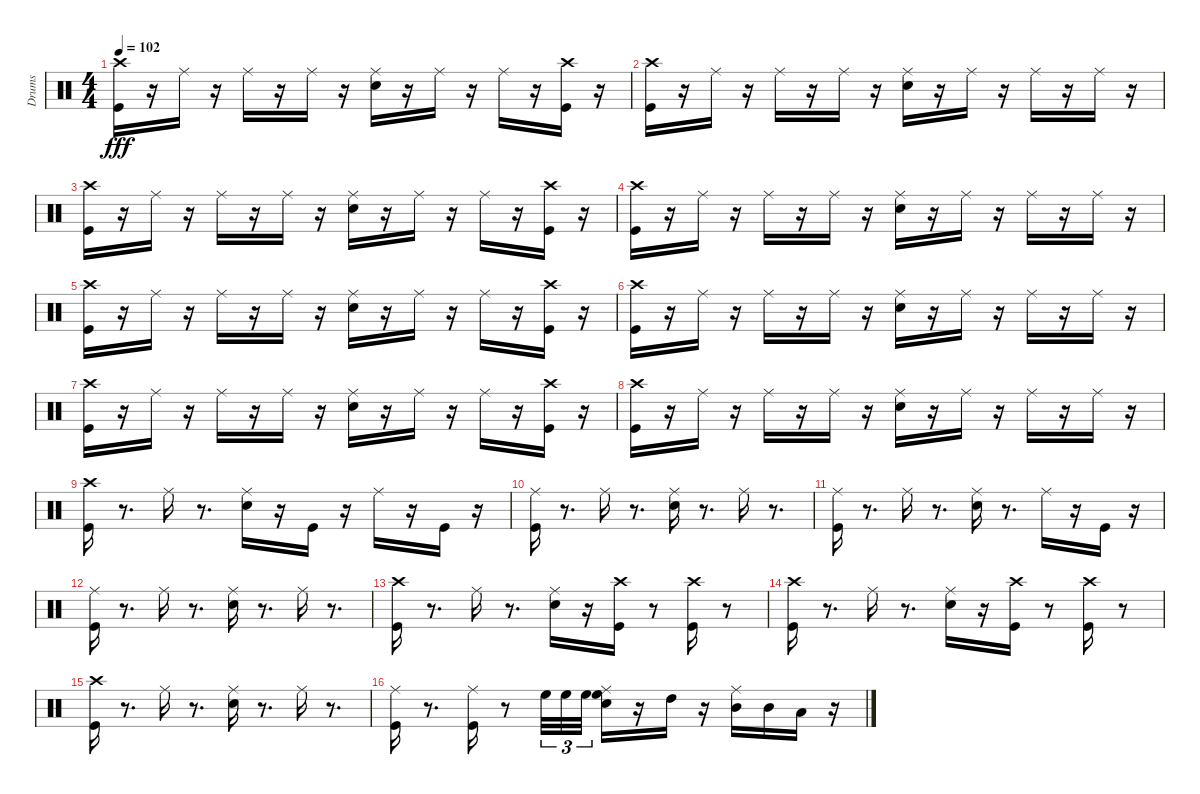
\track ("Drums" "Drums") {instrument percussion}
\staff {score}
\articulation defaults
\ts (4 4)
\tempo 102
\clef neutral
\ks c
("Crash high (hit)" "Kick (hit)").16{dy fff} r.16 "Ride (middle)".16 r.16 "Ride (middle)".16 r.16 "Ride (middle)".16 r.16 ("Ride (middle)" "Snare (hit) 2").16 r.16 "Ride (middle)".16 r.16 "Ride (middle)".16 r.16 ("Kick (hit)" "Crash high (hit)").16 r.16 |
("Kick (hit)" "Crash high (hit)").16 r.16 "Ride (middle)".16 r.16 "Ride (middle)".16 r.16 "Ride (middle)".16 r.16 ("Snare (hit) 2" "Ride (middle)").16 r.16 "Ride (middle)".16 r.16 "Ride (middle)".16 r.16 "Ride (middle)".16 r.16 |
("Kick (hit)" "Crash high (hit)").16 r.16 "Ride (middle)".16 r.16 "Ride (middle)".16 r.16 "Ride (middle)".16 r.16 ("Snare (hit) 2" "Ride (middle)").16 r.16 "Ride (middle)".16 r.16 "Ride (middle)".16 r.16 ("Kick (hit)" "Crash high (hit)").16 r.16 |
("Kick (hit)" "Crash high (hit)").16 r.16 "Ride (middle)".16 r.16 "Ride (middle)".16 r.16 "Ride (middle)".16 r.16 ("Ride (middle)" "Snare (hit) 2").16 r.16 "Ride (middle)".16 r.16 "Ride (middle)".16 r.16 "Ride (middle)".16 r.16 |
("Kick (hit)" "Crash high (hit)").16 r.16 "Ride (middle)".16 r.16 "Ride (middle)".16 r.16 "Ride (middle)".16 r.16 ("Snare (hit) 2" "Ride (middle)").16 r.16 "Ride (middle)".16 r.16 "Ride (middle)".16 r.16 ("Crash high (hit)" "Kick (hit)").16 r.16 |
("Crash high (hit)" "Kick (hit)").16 r.16 "Ride (middle)".16 r.16 "Ride (middle)".16 r.16 "Ride (middle)".16 r.16 ("Ride (middle)" "Snare (hit) 2").16 r.16 "Ride (middle)".16 r.16 "Ride (middle)".16 r.16 "Ride (middle)".16 r.16 |
("Crash high (hit)" "Kick (hit)").16 r.16 "Ride (middle)".16 r.16 "Ride (middle)".16 r.16 "Ride (middle)".16 r.16 ("Ride (middle)" "Snare (hit) 2").16 r.16 "Ride (middle)".16 r.16 "Ride (middle)".16 r.16 ("Crash high (hit)" "Kick (hit)").16 r.16 |
("Crash high (hit)" "Kick (hit)").16 r.16 "Ride (middle)".16 r.16 "Ride (middle)".16 r.16 "Ride (middle)".16 r.16 ("Snare (hit) 2" "Ride (middle)").16 r.16 "Ride (middle)".16 r.16 "Ride (middle)".16 r.16 "Ride (middle)".16 r.16 |
("Crash high (hit)" "Kick (hit)").16 r.8{d} "Ride (middle)".16 r.8{d} ("Snare (hit) 2" "Ride (middle)").16 r.16 "Kick (hit)".16 r.16 "Ride (middle)".16 r.16 "Kick (hit)".16 r.16 |
("Ride (middle)" "Kick (hit)").16 r.8{d} "Ride (middle)".16 r.8{d} ("Ride (middle)" "Snare (hit) 2").16 r.8{d} "Ride (middle)".16 r.8{d} |
("Ride (middle)" "Kick (hit)").16 r.8{d} "Ride (middle)".16 r.8{d} ("Ride (middle)" "Snare (hit) 2").16 r.8{d} "Ride (middle)".16 r.16 "Kick (hit)".16 r.16 |
("Ride (middle)" "Kick (hit)").16 r.8{d} "Ride (middle)".16 r.8{d} ("Snare (hit) 2" "Ride (middle)").16 r.8{d} "Ride (middle)".16 r.8{d} |
("Crash high (hit)" "Kick (hit)").16 r.8{d} "Ride (middle)".16 r.8{d} ("Snare (hit) 2" "Ride (middle)").16 r.16 ("Crash high (hit)" "Kick (hit)").16 r.8 ("Crash high (hit)" "Kick (hit)").16 r.8 |
("Crash high (hit)" "Kick (hit)").16 r.8{d} "Ride (middle)".16 r.8{d} ("Ride (middle)" "Snare (hit) 2").16 r.16 ("Crash high (hit)" "Kick (hit)").16 r.8 ("Crash high (hit)" "Kick (hit)").16 r.8 |
("Crash high (hit)" "Kick (hit)").16 r.8{d} "Ride (middle)".16 r.8{d} ("Snare (hit) 2" "Ride (middle)").16 r.8{d} "Ride (middle)".16 r.8{d} |
("Kick (hit)" "Ride (middle)").16 r.8{d} ("Kick (hit)" "Ride (middle)").16 r.8 "High Floor Tom (hit)".32{tu (3 2)} "High Floor Tom (hit)".32{tu (3 2)} "High Floor Tom (hit)".32{tu (3 2)} ("High Floor Tom (hit)" "Snare (hit) 2" "Ride (middle)").16 r.16 "High Tom (hit)".16 r.16 ("Mid Tom (hit)" "Ride (middle)").16 "Mid Tom (hit)".16 "Low Tom (hit)".16 r.16
